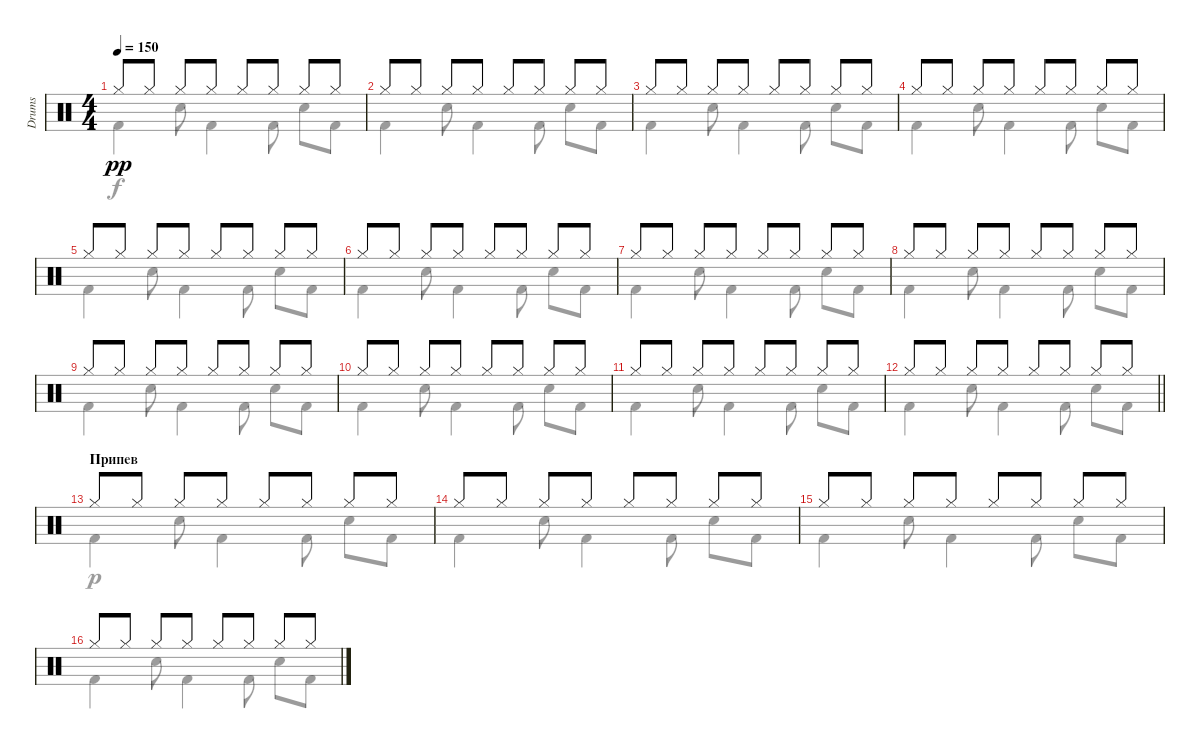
\track ("Drums" "Drums") {instrument percussion}
\staff {score}
\articulation defaults
\voice
\ts (4 4)
\tempo 150
\clef neutral
\ks c "Hi-Hat (closed)".8{dy pp} "Hi-Hat (closed)".8 "Hi-Hat (closed)".8 "Hi-Hat (closed)".8 "Hi-Hat (closed)".8 "Hi-Hat (closed)".8 "Hi-Hat (closed)".8 "Hi-Hat (closed)".8
|
"Hi-Hat (closed)".8 "Hi-Hat (closed)".8 "Hi-Hat (closed)".8 "Hi-Hat (closed)".8 "Hi-Hat (closed)".8 "Hi-Hat (closed)".8 "Hi-Hat (closed)".8 "Hi-Hat (closed)".8 |
"Hi-Hat (closed)".8 "Hi-Hat (closed)".8 "Hi-Hat (closed)".8 "Hi-Hat (closed)".8 "Hi-Hat (closed)".8 "Hi-Hat (closed)".8 "Hi-Hat (closed)".8 "Hi-Hat (closed)".8 |
"Hi-Hat (closed)".8 "Hi-Hat (closed)".8 "Hi-Hat (closed)".8 "Hi-Hat (closed)".8 "Hi-Hat (closed)".8 "Hi-Hat (closed)".8 "Hi-Hat (closed)".8 "Hi-Hat (closed)".8 |
"Hi-Hat (closed)".8 "Hi-Hat (closed)".8 "Hi-Hat (closed)".8 "Hi-Hat (closed)".8 "Hi-Hat (closed)".8 "Hi-Hat (closed)".8 "Hi-Hat (closed)".8 "Hi-Hat (closed)".8 |
"Hi-Hat (closed)".8 "Hi-Hat (closed)".8 "Hi-Hat (closed)".8 "Hi-Hat (closed)".8 "Hi-Hat (closed)".8 "Hi-Hat (closed)".8 "Hi-Hat (closed)".8 "Hi-Hat (closed)".8 |
"Hi-Hat (closed)".8 "Hi-Hat (closed)".8 "Hi-Hat (closed)".8 "Hi-Hat (closed)".8 "Hi-Hat (closed)".8 "Hi-Hat (closed)".8 "Hi-Hat (closed)".8 "Hi-Hat (closed)".8 |
"Hi-Hat (closed)".8 "Hi-Hat (closed)".8 "Hi-Hat (closed)".8 "Hi-Hat (closed)".8 "Hi-Hat (closed)".8 "Hi-Hat (closed)".8 "Hi-Hat (closed)".8 "Hi-Hat (closed)".8 |
"Hi-Hat (closed)".8 "Hi-Hat (closed)".8 "Hi-Hat (closed)".8 "Hi-Hat (closed)".8 "Hi-Hat (closed)".8 "Hi-Hat (closed)".8 "Hi-Hat (closed)".8 "Hi-Hat (closed)".8 |
"Hi-Hat (closed)".8 "Hi-Hat (closed)".8 "Hi-Hat (closed)".8 "Hi-Hat (closed)".8 "Hi-Hat (closed)".8 "Hi-Hat (closed)".8 "Hi-Hat (closed)".8 "Hi-Hat (closed)".8 |
"Hi-Hat (closed)".8 "Hi-Hat (closed)".8 "Hi-Hat (closed)".8 "Hi-Hat (closed)".8 "Hi-Hat (closed)".8 "Hi-Hat (closed)".8 "Hi-Hat (closed)".8 "Hi-Hat (closed)".8 |
\barLineRight lightlight "Hi-Hat (closed)".8 "Hi-Hat (closed)".8 "Hi-Hat (closed)".8 "Hi-Hat (closed)".8 "Hi-Hat (closed)".8 "Hi-Hat (closed)".8 "Hi-Hat (closed)".8 "Hi-Hat (closed)".8
|
\section ("" "Припев")
"Hi-Hat (closed)".8{volume 4 balance 4} "Hi-Hat (closed)".8 "Hi-Hat (closed)".8 "Hi-Hat (closed)".8 "Hi-Hat (closed)".8 "Hi-Hat (closed)".8 "Hi-Hat (closed)".8 "Hi-Hat (closed)".8 |
"Hi-Hat (closed)".8 "Hi-Hat (closed)".8 "Hi-Hat (closed)".8 "Hi-Hat (closed)".8 "Hi-Hat (closed)".8 "Hi-Hat (closed)".8 "Hi-Hat (closed)".8 "Hi-Hat (closed)".8 |
"Hi-Hat (closed)".8 "Hi-Hat (closed)".8 "Hi-Hat (closed)".8 "Hi-Hat (closed)".8 "Hi-Hat (closed)".8 "Hi-Hat (closed)".8 "Hi-Hat (closed)".8 "Hi-Hat (closed)".8 |
"Hi-Hat (closed)".8 "Hi-Hat (closed)".8 "Hi-Hat (closed)".8 "Hi-Hat (closed)".8 "Hi-Hat (closed)".8 "Hi-Hat (closed)".8 "Hi-Hat (closed)".8 "Hi-Hat (closed)".8
\voice
\clef neutral
\ottava regular
\simile none
\ks c "Kick (hit) 2".4{dy f} "Electric Snare (hit)".8 "Kick (hit) 2".4 "Kick (hit) 2".8 "Electric Snare (hit)".8 "Kick (hit) 2".8
|
"Kick (hit) 2".4 "Electric Snare (hit)".8 "Kick (hit) 2".4 "Kick (hit) 2".8 "Electric Snare (hit)".8 "Kick (hit) 2".8 |
"Kick (hit) 2".4 "Electric Snare (hit)".8 "Kick (hit) 2".4 "Kick (hit) 2".8 "Electric Snare (hit)".8 "Kick (hit) 2".8 |
"Kick (hit) 2".4 "Electric Snare (hit)".8 "Kick (hit) 2".4 "Kick (hit) 2".8 "Electric Snare (hit)".8 "Kick (hit) 2".8 |
"Kick (hit) 2".4 "Electric Snare (hit)".8 "Kick (hit) 2".4 "Kick (hit) 2".8 "Electric Snare (hit)".8 "Kick (hit) 2".8 |
"Kick (hit) 2".4 "Electric Snare (hit)".8 "Kick (hit) 2".4 "Kick (hit) 2".8 "Electric Snare (hit)".8 "Kick (hit) 2".8 |
"Kick (hit) 2".4 "Electric Snare (hit)".8 "Kick (hit) 2".4 "Kick (hit) 2".8 "Electric Snare (hit)".8 "Kick (hit) 2".8 |
"Kick (hit) 2".4 "Electric Snare (hit)".8 "Kick (hit) 2".4 "Kick (hit) 2".8 "Electric Snare (hit)".8 "Kick (hit) 2".8 |
"Kick (hit) 2".4 "Electric Snare (hit)".8 "Kick (hit) 2".4 "Kick (hit) 2".8 "Electric Snare (hit)".8 "Kick (hit) 2".8 |
"Kick (hit) 2".4 "Electric Snare (hit)".8 "Kick (hit) 2".4 "Kick (hit) 2".8 "Electric Snare (hit)".8 "Kick (hit) 2".8 |
"Kick (hit) 2".4 "Electric Snare (hit)".8 "Kick (hit) 2".4 "Kick (hit) 2".8 "Electric Snare (hit)".8 "Kick (hit) 2".8 |
\barLineRight lightlight "Kick (hit) 2".4 "Electric Snare (hit)".8 "Kick (hit) 2".4 "Kick (hit) 2".8 "Electric Snare (hit)".8 "Kick (hit) 2".8
|
"Kick (hit) 2".4{dy p} "Electric Snare (hit)".8 "Kick (hit) 2".4 "Kick (hit) 2".8 "Electric Snare (hit)".8 "Kick (hit) 2".8 |
"Kick (hit) 2".4 "Electric Snare (hit)".8 "Kick (hit) 2".4 "Kick (hit) 2".8 "Electric Snare (hit)".8 "Kick (hit) 2".8 |
"Kick (hit) 2".4 "Electric Snare (hit)".8 "Kick (hit) 2".4 "Kick (hit) 2".8 "Electric Snare (hit)".8 "Kick (hit) 2".8 |
"Kick (hit) 2".4 "Electric Snare (hit)".8 "Kick (hit) 2".4 "Kick (hit) 2".8 "Electric Snare (hit)".8 "Kick (hit) 2".8
